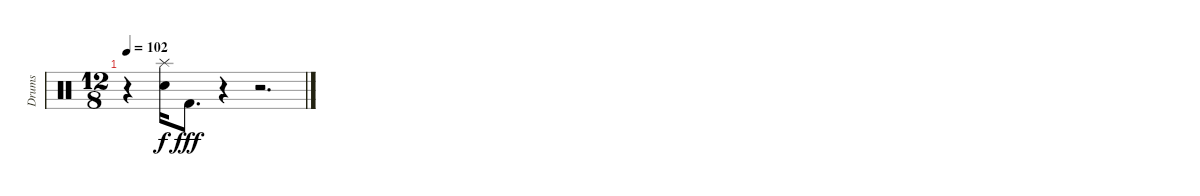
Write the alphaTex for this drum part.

\track ("Drums" "Drums") {instrument percussion}
\staff {score}
\articulation defaults
\ts (12 8)
\tempo 102
\clef neutral
\ks c
r.4{dy f} ("Splash (hit)" "Snare (hit) 2").16 "Kick (hit) 2".8{d dy fff} r.4 r.2{d}
